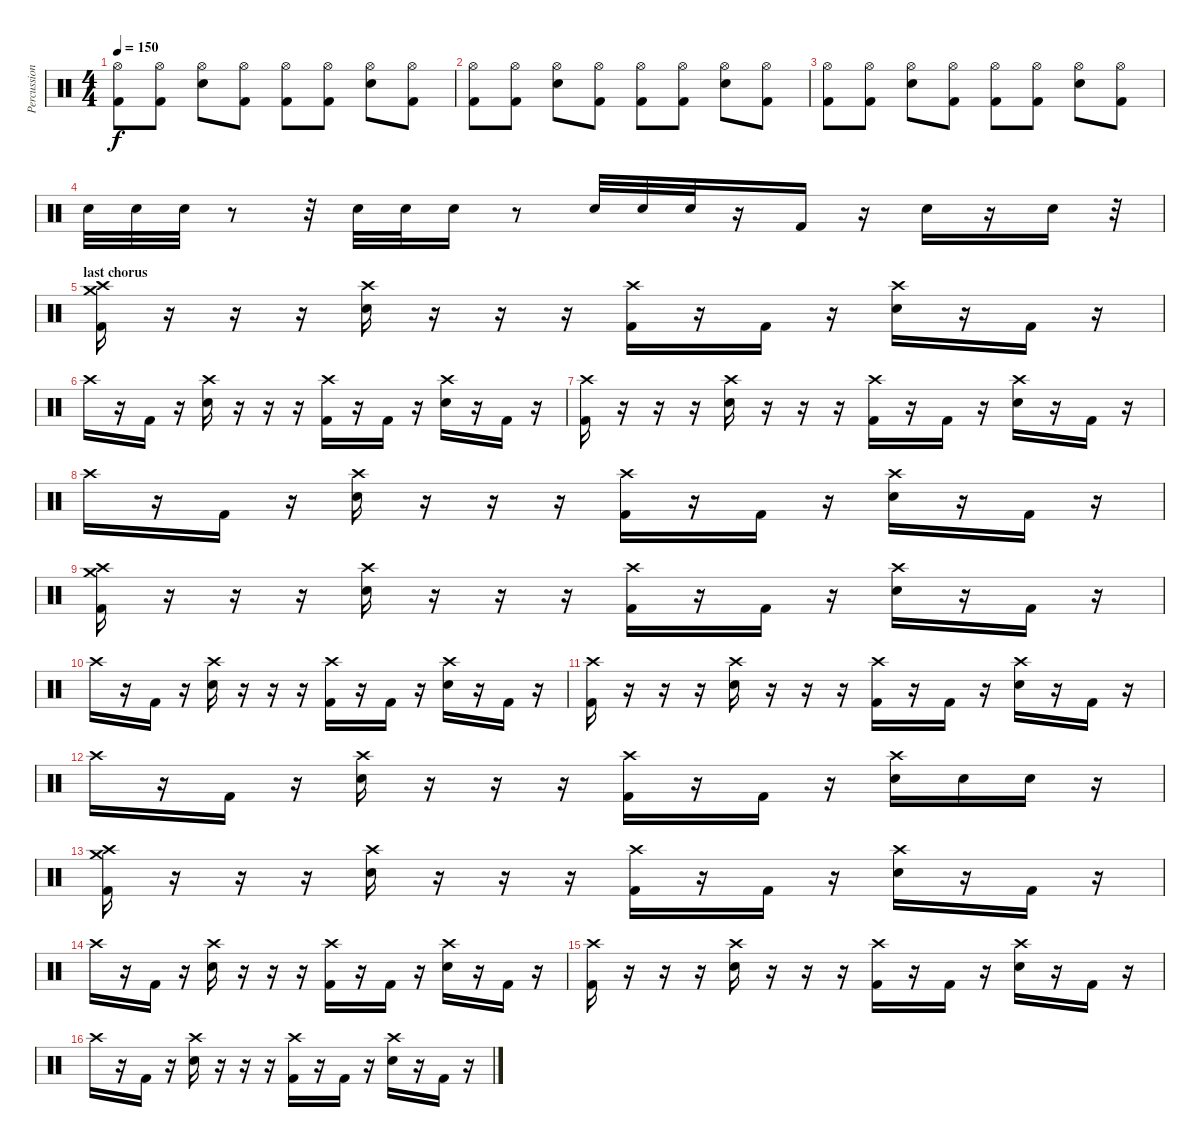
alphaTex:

\track ("Percussion" "Percussion") {instrument percussion}
\staff {score}
\articulation defaults
\ts (4 4)
\tempo 150
\clef neutral
\ks c
("Hi-Hat (open)" "Kick (hit) 2").8{dy f} ("Hi-Hat (open)" "Kick (hit) 2").8 ("Hi-Hat (open)" "Electric Snare (hit)").8 ("Hi-Hat (open)" "Kick (hit) 2").8 ("Hi-Hat (open)" "Kick (hit) 2").8 ("Hi-Hat (open)" "Kick (hit) 2").8 ("Hi-Hat (open)" "Electric Snare (hit)").8 ("Hi-Hat (open)" "Kick (hit) 2").8 |
("Hi-Hat (open)" "Kick (hit) 2").8 ("Hi-Hat (open)" "Kick (hit) 2").8 ("Hi-Hat (open)" "Electric Snare (hit)").8 ("Hi-Hat (open)" "Kick (hit) 2").8 ("Hi-Hat (open)" "Kick (hit) 2").8 ("Hi-Hat (open)" "Kick (hit) 2").8 ("Hi-Hat (open)" "Electric Snare (hit)").8 ("Hi-Hat (open)" "Kick (hit) 2").8 |
("Hi-Hat (open)" "Kick (hit) 2").8 ("Hi-Hat (open)" "Kick (hit) 2").8 ("Hi-Hat (open)" "Electric Snare (hit)").8 ("Hi-Hat (open)" "Kick (hit) 2").8 ("Hi-Hat (open)" "Kick (hit) 2").8 ("Hi-Hat (open)" "Kick (hit) 2").8 ("Hi-Hat (open)" "Electric Snare (hit)").8 ("Hi-Hat (open)" "Kick (hit) 2").8 |
"Electric Snare (hit)".32 "Electric Snare (hit)".32 "Electric Snare (hit)".32 r.8 r.32 "Electric Snare (hit)".32 "Electric Snare (hit)".32 "Electric Snare (hit)".16 r.8 "Electric Snare (hit)".32 "Electric Snare (hit)".32 "Electric Snare (hit)".32 r.16 "Kick (hit) 2".16 r.16 "Electric Snare (hit)".16 r.16 "Electric Snare (hit)".16 r.32 |
\section ("" "last chorus")
("Crash high (hit)" "Crash medium (hit)" "Kick (hit) 2").16 r.16 r.16 r.16 ("Crash high (hit)" "Electric Snare (hit)").16 r.16 r.16 r.16 ("Crash high (hit)" "Kick (hit) 2").16 r.16 "Kick (hit) 2".16 r.16 ("Crash high (hit)" "Electric Snare (hit)").16 r.16 "Kick (hit) 2".16 r.16 |
"Crash high (hit)".16 r.16 "Kick (hit) 2".16 r.16 ("Crash high (hit)" "Electric Snare (hit)").16 r.16 r.16 r.16 ("Crash high (hit)" "Kick (hit) 2").16 r.16 "Kick (hit) 2".16 r.16 ("Crash high (hit)" "Electric Snare (hit)").16 r.16 "Kick (hit) 2".16 r.16 |
("Crash high (hit)" "Kick (hit) 2").16 r.16 r.16 r.16 ("Crash high (hit)" "Electric Snare (hit)").16 r.16 r.16 r.16 ("Crash high (hit)" "Kick (hit) 2").16 r.16 "Kick (hit) 2".16 r.16 ("Crash high (hit)" "Electric Snare (hit)").16 r.16 "Kick (hit) 2".16 r.16 |
"Crash high (hit)".16 r.16 "Kick (hit) 2".16 r.16 ("Crash high (hit)" "Electric Snare (hit)").16 r.16 r.16 r.16 ("Crash high (hit)" "Kick (hit) 2").16 r.16 "Kick (hit) 2".16 r.16 ("Crash high (hit)" "Electric Snare (hit)").16 r.16 "Kick (hit) 2".16 r.16 |
("Crash high (hit)" "Crash medium (hit)" "Kick (hit) 2").16 r.16 r.16 r.16 ("Crash high (hit)" "Electric Snare (hit)").16 r.16 r.16 r.16 ("Crash high (hit)" "Kick (hit) 2").16 r.16 "Kick (hit) 2".16 r.16 ("Crash high (hit)" "Electric Snare (hit)").16 r.16 "Kick (hit) 2".16 r.16 |
"Crash high (hit)".16 r.16 "Kick (hit) 2".16 r.16 ("Crash high (hit)" "Electric Snare (hit)").16 r.16 r.16 r.16 ("Crash high (hit)" "Kick (hit) 2").16 r.16 "Kick (hit) 2".16 r.16 ("Crash high (hit)" "Electric Snare (hit)").16 r.16 "Kick (hit) 2".16 r.16 |
("Crash high (hit)" "Kick (hit) 2").16 r.16 r.16 r.16 ("Crash high (hit)" "Electric Snare (hit)").16 r.16 r.16 r.16 ("Crash high (hit)" "Kick (hit) 2").16 r.16 "Kick (hit) 2".16 r.16 ("Crash high (hit)" "Electric Snare (hit)").16 r.16 "Kick (hit) 2".16 r.16 |
"Crash high (hit)".16 r.16 "Kick (hit) 2".16 r.16 ("Crash high (hit)" "Electric Snare (hit)").16 r.16 r.16 r.16 ("Crash high (hit)" "Kick (hit) 2").16 r.16 "Kick (hit) 2".16 r.16 ("Crash high (hit)" "Electric Snare (hit)").16 "Electric Snare (hit)".16 "Electric Snare (hit)".16 r.16 |
("Crash high (hit)" "Crash medium (hit)" "Kick (hit) 2").16 r.16 r.16 r.16 ("Crash high (hit)" "Electric Snare (hit)").16 r.16 r.16 r.16 ("Crash high (hit)" "Kick (hit) 2").16 r.16 "Kick (hit) 2".16 r.16 ("Crash high (hit)" "Electric Snare (hit)").16 r.16 "Kick (hit) 2".16 r.16 |
"Crash high (hit)".16 r.16 "Kick (hit) 2".16 r.16 ("Crash high (hit)" "Electric Snare (hit)").16 r.16 r.16 r.16 ("Crash high (hit)" "Kick (hit) 2").16 r.16 "Kick (hit) 2".16 r.16 ("Crash high (hit)" "Electric Snare (hit)").16 r.16 "Kick (hit) 2".16 r.16 |
("Crash high (hit)" "Kick (hit) 2").16 r.16 r.16 r.16 ("Crash high (hit)" "Electric Snare (hit)").16 r.16 r.16 r.16 ("Crash high (hit)" "Kick (hit) 2").16 r.16 "Kick (hit) 2".16 r.16 ("Crash high (hit)" "Electric Snare (hit)").16 r.16 "Kick (hit) 2".16 r.16 |
"Crash high (hit)".16 r.16 "Kick (hit) 2".16 r.16 ("Crash high (hit)" "Electric Snare (hit)").16 r.16 r.16 r.16 ("Crash high (hit)" "Kick (hit) 2").16 r.16 "Kick (hit) 2".16 r.16 ("Crash high (hit)" "Electric Snare (hit)").16 r.16 "Kick (hit) 2".16 r.16
